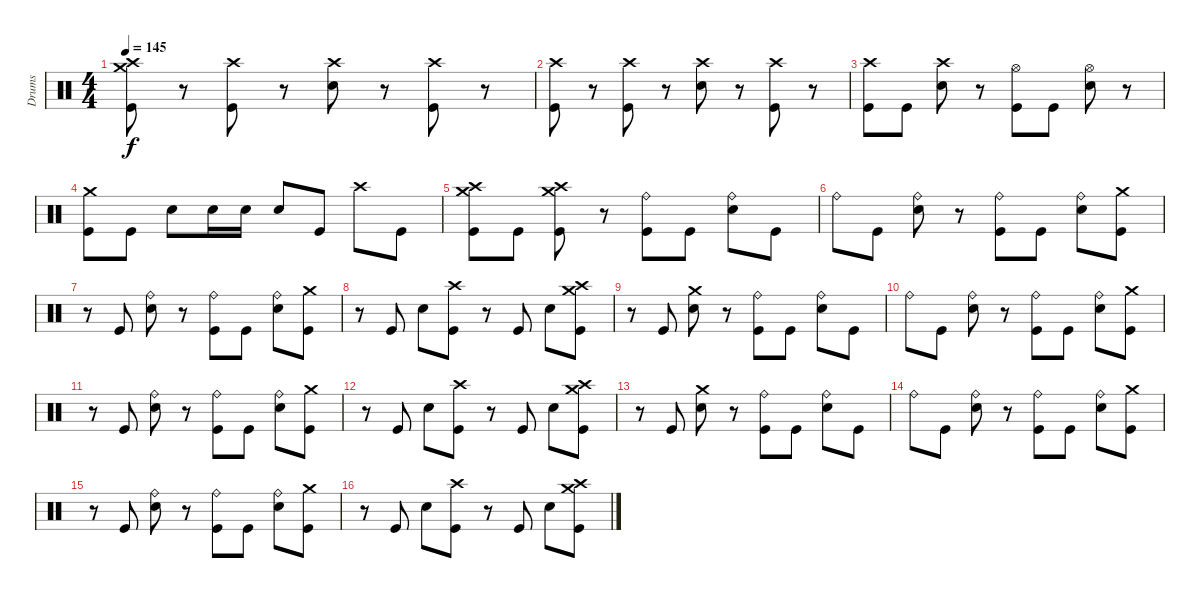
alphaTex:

\track ("Drums" "Drums") {instrument percussion}
\staff {score}
\articulation defaults
\ts (4 4)
\tempo 145
\clef neutral
\ks c
("Crash medium (hit)" "Crash high (hit)" "Kick (hit)").8{dy f} r.8 ("Crash high (hit)" "Kick (hit)").8 r.8 ("Crash high (hit)" "Snare (hit) 2").8 r.8 ("Crash high (hit)" "Kick (hit)").8 r.8 |
("Crash high (hit)" "Kick (hit)").8 r.8 ("Crash high (hit)" "Kick (hit)").8 r.8 ("Crash high (hit)" "Snare (hit) 2").8 r.8 ("Crash high (hit)" "Kick (hit)").8 r.8 |
("Crash high (hit)" "Kick (hit)").8 "Kick (hit)".8 ("Crash high (hit)" "Snare (hit) 2").8 r.8 ("Hi-Hat (open)" "Kick (hit)").8 "Kick (hit)".8 ("Hi-Hat (open)" "Snare (hit) 2").8 r.8 |
("Crash medium (hit)" "Kick (hit)").8 "Kick (hit)".8 "Snare (hit) 2".8 "Snare (hit) 2".16 "Snare (hit) 2".16 "Snare (hit) 2".8 "Kick (hit)".8 "Crash high (hit)".8 "Kick (hit)".8 |
("Crash high (hit)" "Crash medium (hit)" "Kick (hit)").8 "Kick (hit)".8 ("Crash high (hit)" "Crash medium (hit)" "Kick (hit)").8 r.8 ("Ride (bell)" "Kick (hit)").8 "Kick (hit)".8 ("Ride (bell)" "Snare (hit) 2").8 "Kick (hit)".8 |
"Ride (bell)".8 "Kick (hit)".8 ("Ride (bell)" "Snare (hit) 2").8 r.8 ("Ride (bell)" "Kick (hit)").8 "Kick (hit)".8 ("Ride (bell)" "Snare (hit) 2").8 ("Crash medium (hit)" "Kick (hit)").8 |
r.8 "Kick (hit)".8 ("Ride (bell)" "Snare (hit) 2").8 r.8 ("Ride (bell)" "Kick (hit)").8 "Kick (hit)".8 ("Ride (bell)" "Snare (hit) 2").8 ("Crash medium (hit)" "Kick (hit)").8 |
r.8 "Kick (hit)".8 "Snare (hit) 2".8 ("Crash high (hit)" "Kick (hit)").8 r.8 "Kick (hit)".8 "Snare (hit) 2".8 ("Crash high (hit)" "Crash medium (hit)" "Kick (hit)").8 |
r.8 "Kick (hit)".8 ("Crash medium (hit)" "Snare (hit) 2").8 r.8 ("Ride (bell)" "Kick (hit)").8 "Kick (hit)".8 ("Ride (bell)" "Snare (hit) 2").8 "Kick (hit)".8 |
"Ride (bell)".8 "Kick (hit)".8 ("Ride (bell)" "Snare (hit) 2").8 r.8 ("Ride (bell)" "Kick (hit)").8 "Kick (hit)".8 ("Ride (bell)" "Snare (hit) 2").8 ("Crash medium (hit)" "Kick (hit)").8 |
r.8 "Kick (hit)".8 ("Ride (bell)" "Snare (hit) 2").8 r.8 ("Ride (bell)" "Kick (hit)").8 "Kick (hit)".8 ("Ride (bell)" "Snare (hit) 2").8 ("Crash medium (hit)" "Kick (hit)").8 |
r.8 "Kick (hit)".8 "Snare (hit) 2".8 ("Crash high (hit)" "Kick (hit)").8 r.8 "Kick (hit)".8 "Snare (hit) 2".8 ("Crash high (hit)" "Crash medium (hit)" "Kick (hit)").8 |
r.8 "Kick (hit)".8 ("Crash medium (hit)" "Snare (hit) 2").8 r.8 ("Ride (bell)" "Kick (hit)").8 "Kick (hit)".8 ("Ride (bell)" "Snare (hit) 2").8 "Kick (hit)".8 |
"Ride (bell)".8 "Kick (hit)".8 ("Ride (bell)" "Snare (hit) 2").8 r.8 ("Ride (bell)" "Kick (hit)").8 "Kick (hit)".8 ("Ride (bell)" "Snare (hit) 2").8 ("Crash medium (hit)" "Kick (hit)").8 |
r.8 "Kick (hit)".8 ("Ride (bell)" "Snare (hit) 2").8 r.8 ("Ride (bell)" "Kick (hit)").8 "Kick (hit)".8 ("Ride (bell)" "Snare (hit) 2").8 ("Crash medium (hit)" "Kick (hit)").8 |
r.8 "Kick (hit)".8 "Snare (hit) 2".8 ("Crash high (hit)" "Kick (hit)").8 r.8 "Kick (hit)".8 "Snare (hit) 2".8 ("Crash high (hit)" "Crash medium (hit)" "Kick (hit)").8
